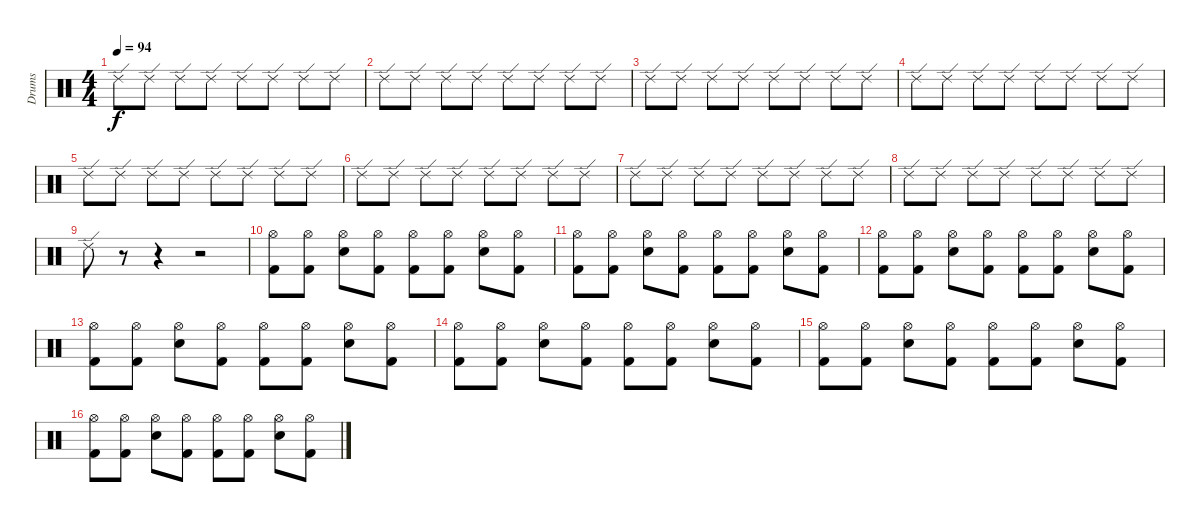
\track ("Drums" "Drums") {instrument percussion}
\staff {score}
\articulation defaults
\ts (4 4)
\tempo 94
\clef neutral
\ks c "Ride (edge) 2".8{dy f} "Ride (edge) 2".8 "Ride (edge) 2".8 "Ride (edge) 2".8 "Ride (edge) 2".8 "Ride (edge) 2".8 "Ride (edge) 2".8 "Ride (edge) 2".8
|
"Ride (edge) 2".8 "Ride (edge) 2".8 "Ride (edge) 2".8 "Ride (edge) 2".8 "Ride (edge) 2".8 "Ride (edge) 2".8 "Ride (edge) 2".8 "Ride (edge) 2".8 |
"Ride (edge) 2".8 "Ride (edge) 2".8 "Ride (edge) 2".8 "Ride (edge) 2".8 "Ride (edge) 2".8 "Ride (edge) 2".8 "Ride (edge) 2".8 "Ride (edge) 2".8 |
"Ride (edge) 2".8 "Ride (edge) 2".8 "Ride (edge) 2".8 "Ride (edge) 2".8 "Ride (edge) 2".8 "Ride (edge) 2".8 "Ride (edge) 2".8 "Ride (edge) 2".8 |
"Ride (edge) 2".8 "Ride (edge) 2".8 "Ride (edge) 2".8 "Ride (edge) 2".8 "Ride (edge) 2".8 "Ride (edge) 2".8 "Ride (edge) 2".8 "Ride (edge) 2".8 |
"Ride (edge) 2".8 "Ride (edge) 2".8 "Ride (edge) 2".8 "Ride (edge) 2".8 "Ride (edge) 2".8 "Ride (edge) 2".8 "Ride (edge) 2".8 "Ride (edge) 2".8 |
"Ride (edge) 2".8 "Ride (edge) 2".8 "Ride (edge) 2".8 "Ride (edge) 2".8 "Ride (edge) 2".8 "Ride (edge) 2".8 "Ride (edge) 2".8 "Ride (edge) 2".8 |
"Ride (edge) 2".8 "Ride (edge) 2".8 "Ride (edge) 2".8 "Ride (edge) 2".8 "Ride (edge) 2".8 "Ride (edge) 2".8 "Ride (edge) 2".8 "Ride (edge) 2".8 |
"Ride (edge) 2".8 r.8 r.4 r.2 |
("Kick (hit) 2" "Hi-Hat (open)").8 ("Kick (hit) 2" "Hi-Hat (open)").8 ("Snare (hit) 2" "Hi-Hat (open)").8 ("Kick (hit) 2" "Hi-Hat (open)").8 ("Kick (hit) 2" "Hi-Hat (open)").8 ("Kick (hit) 2" "Hi-Hat (open)").8 ("Snare (hit) 2" "Hi-Hat (open)").8 ("Kick (hit) 2" "Hi-Hat (open)").8 |
("Kick (hit) 2" "Hi-Hat (open)").8 ("Kick (hit) 2" "Hi-Hat (open)").8 ("Snare (hit) 2" "Hi-Hat (open)").8 ("Kick (hit) 2" "Hi-Hat (open)").8 ("Kick (hit) 2" "Hi-Hat (open)").8 ("Kick (hit) 2" "Hi-Hat (open)").8 ("Snare (hit) 2" "Hi-Hat (open)").8 ("Kick (hit) 2" "Hi-Hat (open)").8 |
("Kick (hit) 2" "Hi-Hat (open)").8 ("Kick (hit) 2" "Hi-Hat (open)").8 ("Snare (hit) 2" "Hi-Hat (open)").8 ("Kick (hit) 2" "Hi-Hat (open)").8 ("Kick (hit) 2" "Hi-Hat (open)").8 ("Kick (hit) 2" "Hi-Hat (open)").8 ("Snare (hit) 2" "Hi-Hat (open)").8 ("Kick (hit) 2" "Hi-Hat (open)").8 |
("Kick (hit) 2" "Hi-Hat (open)").8 ("Kick (hit) 2" "Hi-Hat (open)").8 ("Snare (hit) 2" "Hi-Hat (open)").8 ("Kick (hit) 2" "Hi-Hat (open)").8 ("Kick (hit) 2" "Hi-Hat (open)").8 ("Kick (hit) 2" "Hi-Hat (open)").8 ("Snare (hit) 2" "Hi-Hat (open)").8 ("Kick (hit) 2" "Hi-Hat (open)").8 |
("Kick (hit) 2" "Hi-Hat (open)").8 ("Kick (hit) 2" "Hi-Hat (open)").8 ("Snare (hit) 2" "Hi-Hat (open)").8 ("Kick (hit) 2" "Hi-Hat (open)").8 ("Kick (hit) 2" "Hi-Hat (open)").8 ("Kick (hit) 2" "Hi-Hat (open)").8 ("Snare (hit) 2" "Hi-Hat (open)").8 ("Kick (hit) 2" "Hi-Hat (open)").8 |
("Kick (hit) 2" "Hi-Hat (open)").8 ("Kick (hit) 2" "Hi-Hat (open)").8 ("Snare (hit) 2" "Hi-Hat (open)").8 ("Kick (hit) 2" "Hi-Hat (open)").8 ("Kick (hit) 2" "Hi-Hat (open)").8 ("Kick (hit) 2" "Hi-Hat (open)").8 ("Snare (hit) 2" "Hi-Hat (open)").8 ("Kick (hit) 2" "Hi-Hat (open)").8 |
("Kick (hit) 2" "Hi-Hat (open)").8 ("Kick (hit) 2" "Hi-Hat (open)").8 ("Snare (hit) 2" "Hi-Hat (open)").8 ("Kick (hit) 2" "Hi-Hat (open)").8 ("Kick (hit) 2" "Hi-Hat (open)").8 ("Kick (hit) 2" "Hi-Hat (open)").8 ("Snare (hit) 2" "Hi-Hat (open)").8 ("Kick (hit) 2" "Hi-Hat (open)").8
